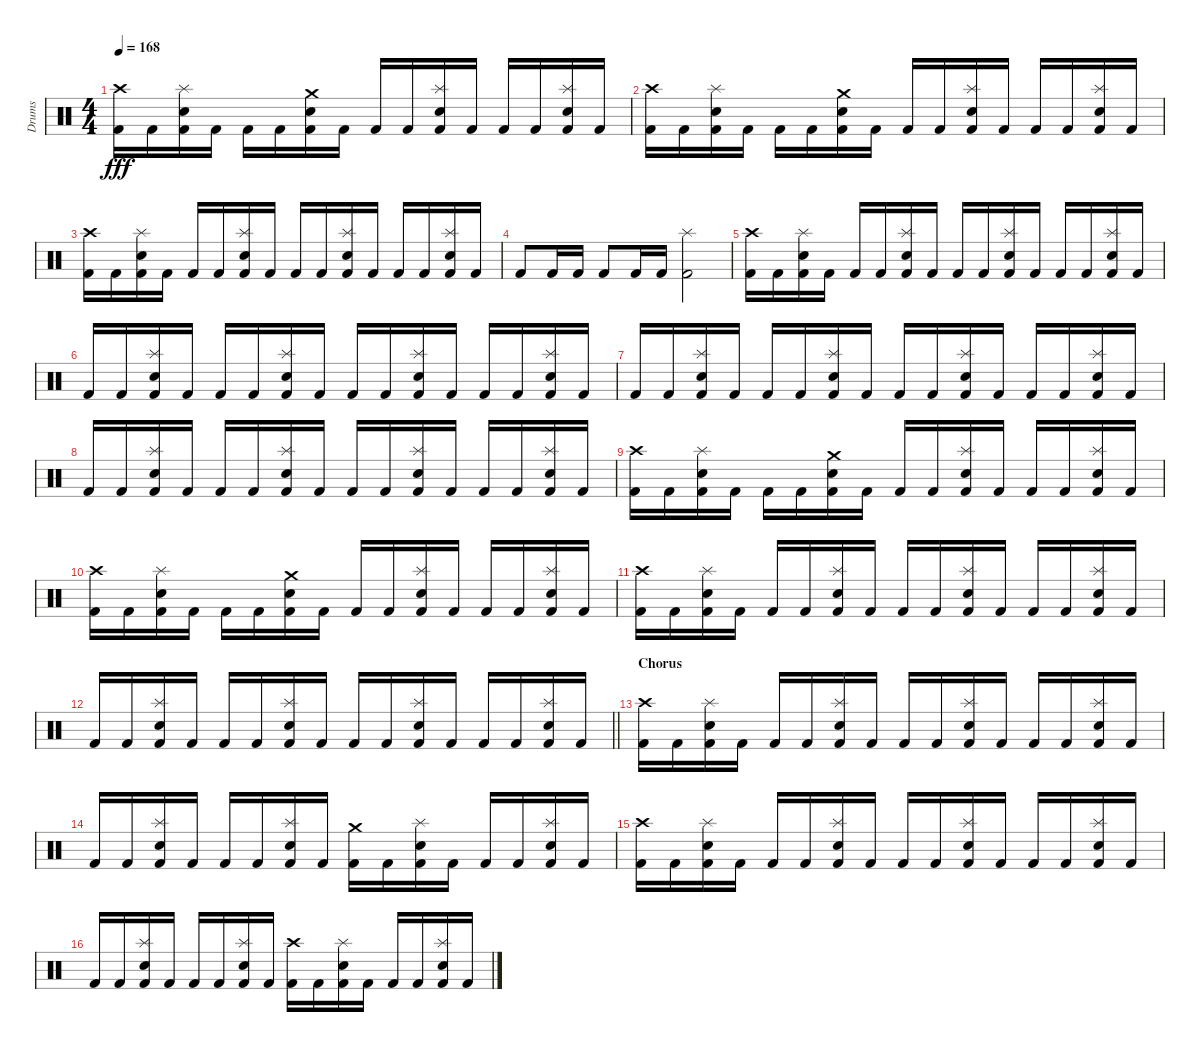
\track ("Drums" "Drums") {instrument percussion}
\staff {score}
\articulation defaults
\ts (4 4)
\tempo 168
\clef neutral
\ks aminor
("Crash high (hit)" "Kick (hit) 2").16{dy fff} "Kick (hit) 2".16 ("Splash (hit)" "Snare (hit) 2" "Kick (hit) 2").16 "Kick (hit) 2".16 "Kick (hit) 2".16 "Kick (hit) 2".16 ("Crash medium (hit)" "Snare (hit) 2" "Kick (hit) 2").16 "Kick (hit) 2".16 "Kick (hit) 2".16 "Kick (hit) 2".16 ("Splash (hit)" "Snare (hit) 2" "Kick (hit) 2").16 "Kick (hit) 2".16 "Kick (hit) 2".16 "Kick (hit) 2".16 ("Splash (hit)" "Snare (hit) 2" "Kick (hit) 2").16 "Kick (hit) 2".16 |
("Crash high (hit)" "Kick (hit) 2").16 "Kick (hit) 2".16 ("Splash (hit)" "Snare (hit) 2" "Kick (hit) 2").16 "Kick (hit) 2".16 "Kick (hit) 2".16 "Kick (hit) 2".16 ("Crash medium (hit)" "Snare (hit) 2" "Kick (hit) 2").16 "Kick (hit) 2".16 "Kick (hit) 2".16 "Kick (hit) 2".16 ("Splash (hit)" "Snare (hit) 2" "Kick (hit) 2").16 "Kick (hit) 2".16 "Kick (hit) 2".16 "Kick (hit) 2".16 ("Splash (hit)" "Snare (hit) 2" "Kick (hit) 2").16 "Kick (hit) 2".16 |
("Crash high (hit)" "Kick (hit) 2").16 "Kick (hit) 2".16 ("Splash (hit)" "Snare (hit) 2" "Kick (hit) 2").16 "Kick (hit) 2".16 "Kick (hit) 2".16 "Kick (hit) 2".16 ("Splash (hit)" "Snare (hit) 2" "Kick (hit) 2").16 "Kick (hit) 2".16 "Kick (hit) 2".16 "Kick (hit) 2".16 ("Splash (hit)" "Snare (hit) 2" "Kick (hit) 2").16 "Kick (hit) 2".16 "Kick (hit) 2".16 "Kick (hit) 2".16 ("Splash (hit)" "Snare (hit) 2" "Kick (hit) 2").16 "Kick (hit) 2".16 |
"Kick (hit) 2".8 "Kick (hit) 2".16 "Kick (hit) 2".16 "Kick (hit) 2".8 "Kick (hit) 2".16 "Kick (hit) 2".16 ("Splash (hit)" "Kick (hit) 2").2 |
("Crash high (hit)" "Kick (hit) 2").16 "Kick (hit) 2".16 ("Splash (hit)" "Snare (hit) 2" "Kick (hit) 2").16 "Kick (hit) 2".16 "Kick (hit) 2".16 "Kick (hit) 2".16 ("Splash (hit)" "Snare (hit) 2" "Kick (hit) 2").16 "Kick (hit) 2".16 "Kick (hit) 2".16 "Kick (hit) 2".16 ("Splash (hit)" "Snare (hit) 2" "Kick (hit) 2").16 "Kick (hit) 2".16 "Kick (hit) 2".16 "Kick (hit) 2".16 ("Splash (hit)" "Snare (hit) 2" "Kick (hit) 2").16 "Kick (hit) 2".16 |
"Kick (hit) 2".16 "Kick (hit) 2".16 ("Splash (hit)" "Snare (hit) 2" "Kick (hit) 2").16 "Kick (hit) 2".16 "Kick (hit) 2".16 "Kick (hit) 2".16 ("Splash (hit)" "Snare (hit) 2" "Kick (hit) 2").16 "Kick (hit) 2".16 "Kick (hit) 2".16 "Kick (hit) 2".16 ("Splash (hit)" "Snare (hit) 2" "Kick (hit) 2").16 "Kick (hit) 2".16 "Kick (hit) 2".16 "Kick (hit) 2".16 ("Splash (hit)" "Snare (hit) 2" "Kick (hit) 2").16 "Kick (hit) 2".16 |
"Kick (hit) 2".16 "Kick (hit) 2".16 ("Splash (hit)" "Snare (hit) 2" "Kick (hit) 2").16 "Kick (hit) 2".16 "Kick (hit) 2".16 "Kick (hit) 2".16 ("Splash (hit)" "Snare (hit) 2" "Kick (hit) 2").16 "Kick (hit) 2".16 "Kick (hit) 2".16 "Kick (hit) 2".16 ("Splash (hit)" "Snare (hit) 2" "Kick (hit) 2").16 "Kick (hit) 2".16 "Kick (hit) 2".16 "Kick (hit) 2".16 ("Splash (hit)" "Snare (hit) 2" "Kick (hit) 2").16 "Kick (hit) 2".16 |
"Kick (hit) 2".16 "Kick (hit) 2".16 ("Splash (hit)" "Snare (hit) 2" "Kick (hit) 2").16 "Kick (hit) 2".16 "Kick (hit) 2".16 "Kick (hit) 2".16 ("Splash (hit)" "Snare (hit) 2" "Kick (hit) 2").16 "Kick (hit) 2".16 "Kick (hit) 2".16 "Kick (hit) 2".16 ("Splash (hit)" "Snare (hit) 2" "Kick (hit) 2").16 "Kick (hit) 2".16 "Kick (hit) 2".16 "Kick (hit) 2".16 ("Splash (hit)" "Snare (hit) 2" "Kick (hit) 2").16 "Kick (hit) 2".16 |
("Crash high (hit)" "Kick (hit) 2").16 "Kick (hit) 2".16 ("Splash (hit)" "Snare (hit) 2" "Kick (hit) 2").16 "Kick (hit) 2".16 "Kick (hit) 2".16 "Kick (hit) 2".16 ("Crash medium (hit)" "Snare (hit) 2" "Kick (hit) 2").16 "Kick (hit) 2".16 "Kick (hit) 2".16 "Kick (hit) 2".16 ("Splash (hit)" "Snare (hit) 2" "Kick (hit) 2").16 "Kick (hit) 2".16 "Kick (hit) 2".16 "Kick (hit) 2".16 ("Splash (hit)" "Snare (hit) 2" "Kick (hit) 2").16 "Kick (hit) 2".16 |
("Crash high (hit)" "Kick (hit) 2").16 "Kick (hit) 2".16 ("Splash (hit)" "Snare (hit) 2" "Kick (hit) 2").16 "Kick (hit) 2".16 "Kick (hit) 2".16 "Kick (hit) 2".16 ("Crash medium (hit)" "Snare (hit) 2" "Kick (hit) 2").16 "Kick (hit) 2".16 "Kick (hit) 2".16 "Kick (hit) 2".16 ("Splash (hit)" "Snare (hit) 2" "Kick (hit) 2").16 "Kick (hit) 2".16 "Kick (hit) 2".16 "Kick (hit) 2".16 ("Splash (hit)" "Snare (hit) 2" "Kick (hit) 2").16 "Kick (hit) 2".16 |
("Crash high (hit)" "Kick (hit) 2").16 "Kick (hit) 2".16 ("Splash (hit)" "Snare (hit) 2" "Kick (hit) 2").16 "Kick (hit) 2".16 "Kick (hit) 2".16 "Kick (hit) 2".16 ("Splash (hit)" "Snare (hit) 2" "Kick (hit) 2").16 "Kick (hit) 2".16 "Kick (hit) 2".16 "Kick (hit) 2".16 ("Splash (hit)" "Snare (hit) 2" "Kick (hit) 2").16 "Kick (hit) 2".16 "Kick (hit) 2".16 "Kick (hit) 2".16 ("Splash (hit)" "Snare (hit) 2" "Kick (hit) 2").16 "Kick (hit) 2".16 |
\barLineRight lightlight "Kick (hit) 2".16 "Kick (hit) 2".16
("Splash (hit)" "Snare (hit) 2" "Kick (hit) 2").16 "Kick (hit) 2".16 "Kick (hit) 2".16 "Kick (hit) 2".16 ("Splash (hit)" "Snare (hit) 2" "Kick (hit) 2").16 "Kick (hit) 2".16 "Kick (hit) 2".16 "Kick (hit) 2".16 ("Splash (hit)" "Snare (hit) 2" "Kick (hit) 2").16 "Kick (hit) 2".16 "Kick (hit) 2".16 "Kick (hit) 2".16 ("Splash (hit)" "Snare (hit) 2" "Kick (hit) 2").16 "Kick (hit) 2".16 |
\section ("" "Chorus")
("Crash high (hit)" "Kick (hit) 2").16 "Kick (hit) 2".16 ("Splash (hit)" "Snare (hit) 2" "Kick (hit) 2").16 "Kick (hit) 2".16 "Kick (hit) 2".16 "Kick (hit) 2".16 ("Splash (hit)" "Snare (hit) 2" "Kick (hit) 2").16 "Kick (hit) 2".16 "Kick (hit) 2".16 "Kick (hit) 2".16 ("Splash (hit)" "Snare (hit) 2" "Kick (hit) 2").16 "Kick (hit) 2".16 "Kick (hit) 2".16 "Kick (hit) 2".16 ("Splash (hit)" "Snare (hit) 2" "Kick (hit) 2").16 "Kick (hit) 2".16 |
"Kick (hit) 2".16 "Kick (hit) 2".16 ("Splash (hit)" "Snare (hit) 2" "Kick (hit) 2").16 "Kick (hit) 2".16 "Kick (hit) 2".16 "Kick (hit) 2".16 ("Splash (hit)" "Snare (hit) 2" "Kick (hit) 2").16 "Kick (hit) 2".16 ("Crash medium (hit)" "Kick (hit) 2").16 "Kick (hit) 2".16 ("Splash (hit)" "Snare (hit) 2" "Kick (hit) 2").16 "Kick (hit) 2".16 "Kick (hit) 2".16 "Kick (hit) 2".16 ("Splash (hit)" "Snare (hit) 2" "Kick (hit) 2").16 "Kick (hit) 2".16 |
("Crash high (hit)" "Kick (hit) 2").16 "Kick (hit) 2".16 ("Splash (hit)" "Snare (hit) 2" "Kick (hit) 2").16 "Kick (hit) 2".16 "Kick (hit) 2".16 "Kick (hit) 2".16 ("Splash (hit)" "Snare (hit) 2" "Kick (hit) 2").16 "Kick (hit) 2".16 "Kick (hit) 2".16 "Kick (hit) 2".16 ("Splash (hit)" "Snare (hit) 2" "Kick (hit) 2").16 "Kick (hit) 2".16 "Kick (hit) 2".16 "Kick (hit) 2".16 ("Splash (hit)" "Snare (hit) 2" "Kick (hit) 2").16 "Kick (hit) 2".16 |
"Kick (hit) 2".16 "Kick (hit) 2".16 ("Splash (hit)" "Snare (hit) 2" "Kick (hit) 2").16 "Kick (hit) 2".16 "Kick (hit) 2".16 "Kick (hit) 2".16 ("Splash (hit)" "Snare (hit) 2" "Kick (hit) 2").16 "Kick (hit) 2".16 ("Crash high (hit)" "Kick (hit) 2").16 "Kick (hit) 2".16 ("Splash (hit)" "Snare (hit) 2" "Kick (hit) 2").16 "Kick (hit) 2".16 "Kick (hit) 2".16 "Kick (hit) 2".16 ("Splash (hit)" "Snare (hit) 2" "Kick (hit) 2").16 "Kick (hit) 2".16
